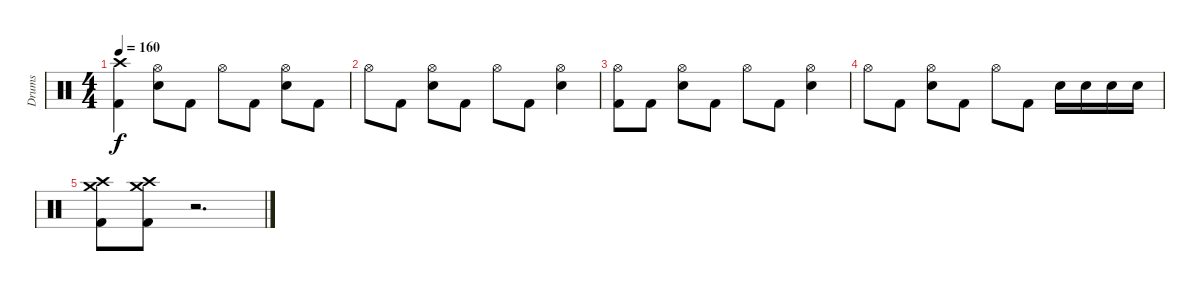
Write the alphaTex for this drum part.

\track ("Drums" "Drums") {instrument percussion}
\staff {score}
\articulation defaults
\ts (4 4)
\tempo 160
\clef neutral
\ks c
("Crash high (hit)" "Kick (hit) 2").4{dy f} ("Hi-Hat (open)" "Electric Snare (hit)").8 "Kick (hit) 2".8 "Hi-Hat (open)".8 "Kick (hit) 2".8 ("Hi-Hat (open)" "Electric Snare (hit)").8 "Kick (hit) 2".8 |
"Hi-Hat (open)".8 "Kick (hit) 2".8 ("Hi-Hat (open)" "Electric Snare (hit)").8 "Kick (hit) 2".8 "Hi-Hat (open)".8 "Kick (hit) 2".8 ("Hi-Hat (open)" "Electric Snare (hit)").4 |
("Hi-Hat (open)" "Kick (hit) 2").8 "Kick (hit) 2".8 ("Hi-Hat (open)" "Electric Snare (hit)").8 "Kick (hit) 2".8 "Hi-Hat (open)".8 "Kick (hit) 2".8 ("Hi-Hat (open)" "Electric Snare (hit)").4 |
"Hi-Hat (open)".8 "Kick (hit) 2".8 ("Hi-Hat (open)" "Electric Snare (hit)").8 "Kick (hit) 2".8 "Hi-Hat (open)".8 "Kick (hit) 2".8 "Electric Snare (hit)".16 "Electric Snare (hit)".16 "Electric Snare (hit)".16 "Electric Snare (hit)".16 |
("Crash high (hit)" "Crash medium (hit)" "Kick (hit) 2").8 ("Crash high (hit)" "Crash medium (hit)" "Kick (hit) 2").8 r.2{d}
